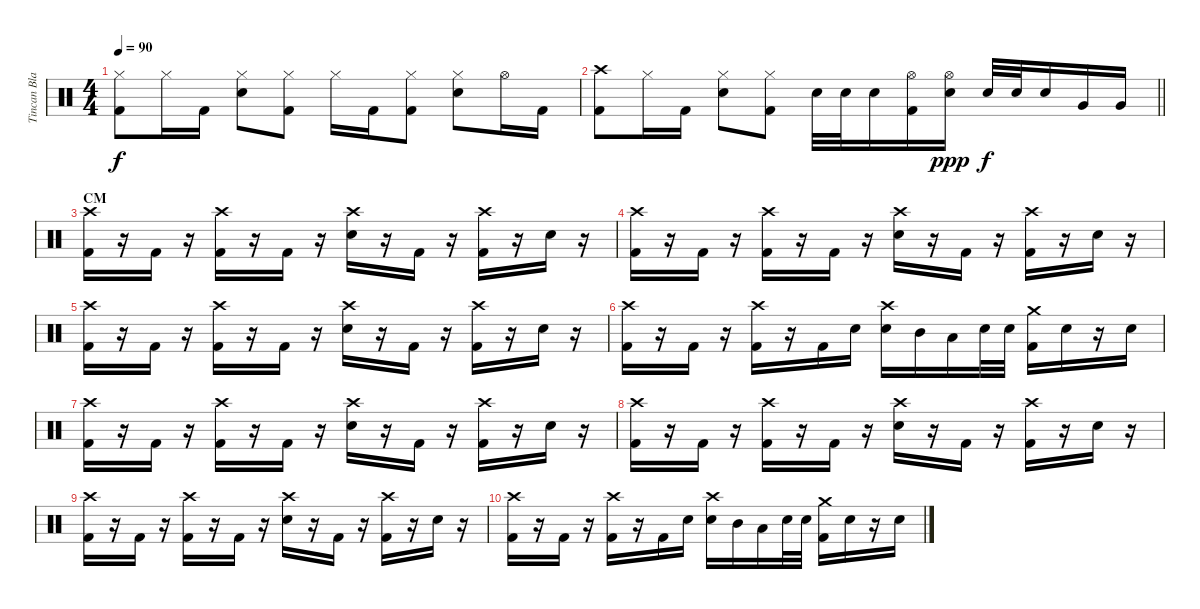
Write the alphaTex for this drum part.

\track ("Tincan Blaster" "Tincan Bla") {instrument percussion}
\staff {score}
\articulation defaults
\ts (4 4)
\tempo 90
\clef neutral
\ks c
("Hi-Hat (closed)" "Kick (hit) 2").8{dy f} "Hi-Hat (closed)".16 "Kick (hit) 2".16 ("Hi-Hat (closed)" "Electric Snare (hit)").8 ("Hi-Hat (closed)" "Kick (hit) 2").8 "Hi-Hat (closed)".16 "Kick (hit) 2".16 ("Hi-Hat (closed)" "Kick (hit) 2").8 ("Hi-Hat (closed)" "Electric Snare (hit)").8 "Hi-Hat (open)".16 "Kick (hit) 2".16 |
\barLineRight lightlight
("Crash high (hit)" "Kick (hit) 2").8 "Hi-Hat (closed)".16 "Kick (hit) 2".16 ("Hi-Hat (closed)" "Electric Snare (hit)").8 ("Hi-Hat (closed)" "Kick (hit) 2").8 "Electric Snare (hit)".32 "Electric Snare (hit)".32 "Electric Snare (hit)".16 ("Hi-Hat (open)" "Kick (hit) 2").16 ("Hi-Hat (open)" "Electric Snare (hit)").16{dy ppp} "Electric Snare (hit)".32{dy f} "Electric Snare (hit)".32 "Electric Snare (hit)".16 "Very Low Tom (hit)".16 "Very Low Tom (hit)".16 |
\section ("" "CM")
("Crash high (hit)" "Kick (hit) 2").16 r.16 "Kick (hit) 2".16 r.16 ("Crash high (hit)" "Kick (hit) 2").16 r.16 "Kick (hit) 2".16 r.16 ("Crash high (hit)" "Electric Snare (hit)").16 r.16 "Kick (hit) 2".16 r.16 ("Crash high (hit)" "Kick (hit) 2").16 r.16 "Electric Snare (hit)".16 r.16 |
("Crash high (hit)" "Kick (hit) 2").16 r.16 "Kick (hit) 2".16 r.16 ("Crash high (hit)" "Kick (hit) 2").16 r.16 "Kick (hit) 2".16 r.16 ("Crash high (hit)" "Electric Snare (hit)").16 r.16 "Kick (hit) 2".16 r.16 ("Crash high (hit)" "Kick (hit) 2").16 r.16 "Electric Snare (hit)".16 r.16 |
("Crash high (hit)" "Kick (hit) 2").16 r.16 "Kick (hit) 2".16 r.16 ("Crash high (hit)" "Kick (hit) 2").16 r.16 "Kick (hit) 2".16 r.16 ("Crash high (hit)" "Electric Snare (hit)").16 r.16 "Kick (hit) 2".16 r.16 ("Crash high (hit)" "Kick (hit) 2").16 r.16 "Electric Snare (hit)".16 r.16 |
("Crash high (hit)" "Kick (hit) 2").16 r.16 "Kick (hit) 2".16 r.16 ("Crash high (hit)" "Kick (hit) 2").16 r.16 "Kick (hit) 2".16 "Electric Snare (hit)".16 ("Crash high (hit)" "Electric Snare (hit)").16 "Mid Tom (hit)".16 "Low Tom (hit)".16 "Electric Snare (hit)".32 "Electric Snare (hit)".32 ("Crash medium (hit)" "Kick (hit) 2").16 "Electric Snare (hit)".16 r.16 "Electric Snare (hit)".16 |
("Crash high (hit)" "Kick (hit) 2").16 r.16 "Kick (hit) 2".16 r.16 ("Crash high (hit)" "Kick (hit) 2").16 r.16 "Kick (hit) 2".16 r.16 ("Crash high (hit)" "Electric Snare (hit)").16 r.16 "Kick (hit) 2".16 r.16 ("Crash high (hit)" "Kick (hit) 2").16 r.16 "Electric Snare (hit)".16 r.16 |
("Crash high (hit)" "Kick (hit) 2").16 r.16 "Kick (hit) 2".16 r.16 ("Crash high (hit)" "Kick (hit) 2").16 r.16 "Kick (hit) 2".16 r.16 ("Crash high (hit)" "Electric Snare (hit)").16 r.16 "Kick (hit) 2".16 r.16 ("Crash high (hit)" "Kick (hit) 2").16 r.16 "Electric Snare (hit)".16 r.16 |
("Crash high (hit)" "Kick (hit) 2").16 r.16 "Kick (hit) 2".16 r.16 ("Crash high (hit)" "Kick (hit) 2").16 r.16 "Kick (hit) 2".16 r.16 ("Crash high (hit)" "Electric Snare (hit)").16 r.16 "Kick (hit) 2".16 r.16 ("Crash high (hit)" "Kick (hit) 2").16 r.16 "Electric Snare (hit)".16 r.16 |
("Crash high (hit)" "Kick (hit) 2").16 r.16 "Kick (hit) 2".16 r.16 ("Crash high (hit)" "Kick (hit) 2").16 r.16 "Kick (hit) 2".16 "Electric Snare (hit)".16 ("Crash high (hit)" "Electric Snare (hit)").16 "Mid Tom (hit)".16 "Low Tom (hit)".16 "Electric Snare (hit)".32 "Electric Snare (hit)".32 ("Crash medium (hit)" "Kick (hit) 2").16 "Electric Snare (hit)".16 r.16 "Electric Snare (hit)".16
